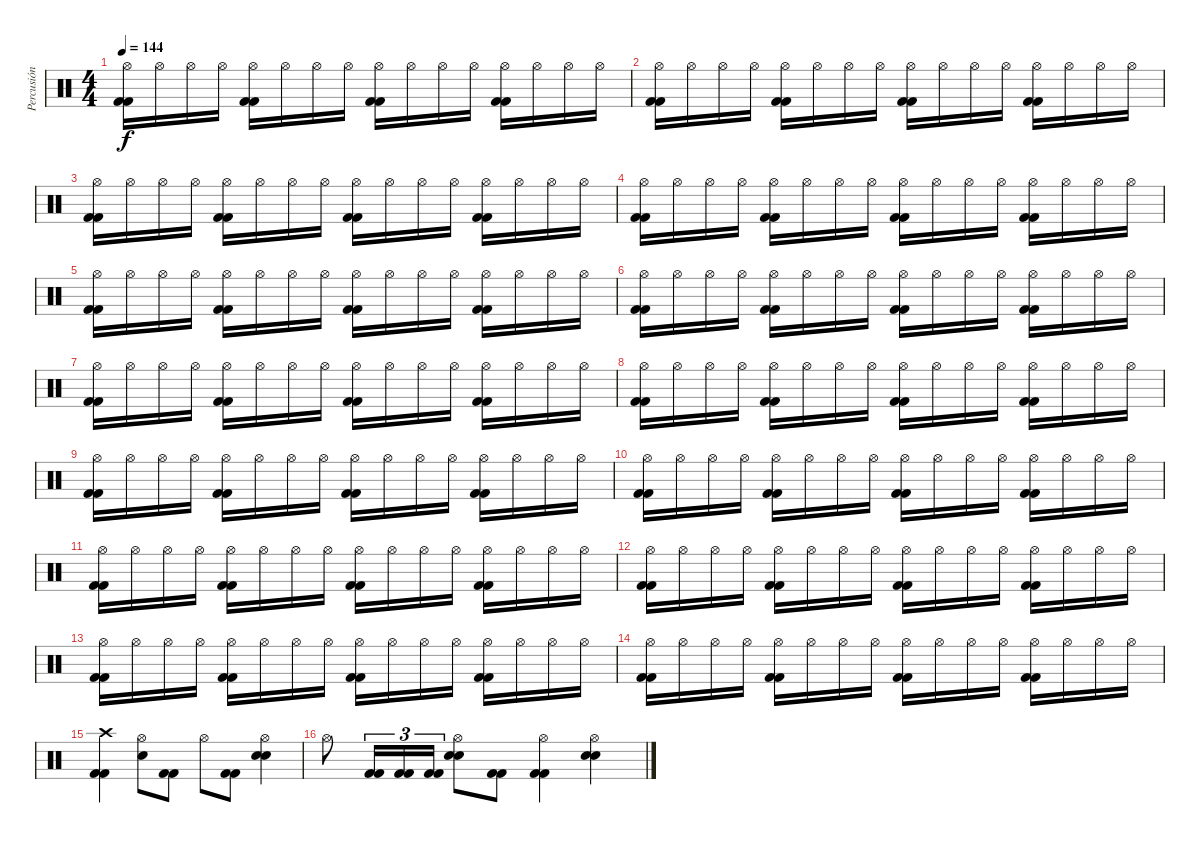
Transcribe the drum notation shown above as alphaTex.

\track ("Percusión" "Percusión") {instrument percussion}
\staff {score}
\articulation defaults
\ts (4 4)
\tempo 144
\clef neutral
\ks c
("Hi-Hat (open)" "Kick (hit) 2" "Kick (hit) 2").16{dy f} "Hi-Hat (open)".16 "Hi-Hat (open)".16 "Hi-Hat (open)".16 ("Hi-Hat (open)" "Kick (hit) 2" "Kick (hit) 2").16 "Hi-Hat (open)".16 "Hi-Hat (open)".16 "Hi-Hat (open)".16 ("Hi-Hat (open)" "Kick (hit) 2" "Kick (hit) 2").16 "Hi-Hat (open)".16 "Hi-Hat (open)".16 "Hi-Hat (open)".16 ("Hi-Hat (open)" "Kick (hit) 2" "Kick (hit) 2").16 "Hi-Hat (open)".16 "Hi-Hat (open)".16 "Hi-Hat (open)".16 |
("Hi-Hat (open)" "Kick (hit) 2" "Kick (hit) 2").16 "Hi-Hat (open)".16 "Hi-Hat (open)".16 "Hi-Hat (open)".16 ("Hi-Hat (open)" "Kick (hit) 2" "Kick (hit) 2").16 "Hi-Hat (open)".16 "Hi-Hat (open)".16 "Hi-Hat (open)".16 ("Hi-Hat (open)" "Kick (hit) 2" "Kick (hit) 2").16 "Hi-Hat (open)".16 "Hi-Hat (open)".16 "Hi-Hat (open)".16 ("Hi-Hat (open)" "Kick (hit) 2" "Kick (hit) 2").16 "Hi-Hat (open)".16 "Hi-Hat (open)".16 "Hi-Hat (open)".16 |
("Hi-Hat (open)" "Kick (hit) 2" "Kick (hit) 2").16 "Hi-Hat (open)".16 "Hi-Hat (open)".16 "Hi-Hat (open)".16 ("Hi-Hat (open)" "Kick (hit) 2" "Kick (hit) 2").16 "Hi-Hat (open)".16 "Hi-Hat (open)".16 "Hi-Hat (open)".16 ("Hi-Hat (open)" "Kick (hit) 2" "Kick (hit) 2").16 "Hi-Hat (open)".16 "Hi-Hat (open)".16 "Hi-Hat (open)".16 ("Hi-Hat (open)" "Kick (hit) 2" "Kick (hit) 2").16 "Hi-Hat (open)".16 "Hi-Hat (open)".16 "Hi-Hat (open)".16 |
("Hi-Hat (open)" "Kick (hit) 2" "Kick (hit) 2").16 "Hi-Hat (open)".16 "Hi-Hat (open)".16 "Hi-Hat (open)".16 ("Hi-Hat (open)" "Kick (hit) 2" "Kick (hit) 2").16 "Hi-Hat (open)".16 "Hi-Hat (open)".16 "Hi-Hat (open)".16 ("Hi-Hat (open)" "Kick (hit) 2" "Kick (hit) 2").16 "Hi-Hat (open)".16 "Hi-Hat (open)".16 "Hi-Hat (open)".16 ("Hi-Hat (open)" "Kick (hit) 2" "Kick (hit) 2").16 "Hi-Hat (open)".16 "Hi-Hat (open)".16 "Hi-Hat (open)".16 |
("Hi-Hat (open)" "Kick (hit) 2" "Kick (hit) 2").16 "Hi-Hat (open)".16 "Hi-Hat (open)".16 "Hi-Hat (open)".16 ("Hi-Hat (open)" "Kick (hit) 2" "Kick (hit) 2").16 "Hi-Hat (open)".16 "Hi-Hat (open)".16 "Hi-Hat (open)".16 ("Hi-Hat (open)" "Kick (hit) 2" "Kick (hit) 2").16 "Hi-Hat (open)".16 "Hi-Hat (open)".16 "Hi-Hat (open)".16 ("Hi-Hat (open)" "Kick (hit) 2" "Kick (hit) 2").16 "Hi-Hat (open)".16 "Hi-Hat (open)".16 "Hi-Hat (open)".16 |
("Hi-Hat (open)" "Kick (hit) 2" "Kick (hit) 2").16 "Hi-Hat (open)".16 "Hi-Hat (open)".16 "Hi-Hat (open)".16 ("Hi-Hat (open)" "Kick (hit) 2" "Kick (hit) 2").16 "Hi-Hat (open)".16 "Hi-Hat (open)".16 "Hi-Hat (open)".16 ("Hi-Hat (open)" "Kick (hit) 2" "Kick (hit) 2").16 "Hi-Hat (open)".16 "Hi-Hat (open)".16 "Hi-Hat (open)".16 ("Hi-Hat (open)" "Kick (hit) 2" "Kick (hit) 2").16 "Hi-Hat (open)".16 "Hi-Hat (open)".16 "Hi-Hat (open)".16 |
("Hi-Hat (open)" "Kick (hit) 2" "Kick (hit) 2").16 "Hi-Hat (open)".16 "Hi-Hat (open)".16 "Hi-Hat (open)".16 ("Hi-Hat (open)" "Kick (hit) 2" "Kick (hit) 2").16 "Hi-Hat (open)".16 "Hi-Hat (open)".16 "Hi-Hat (open)".16 ("Hi-Hat (open)" "Kick (hit) 2" "Kick (hit) 2").16 "Hi-Hat (open)".16 "Hi-Hat (open)".16 "Hi-Hat (open)".16 ("Hi-Hat (open)" "Kick (hit) 2" "Kick (hit) 2").16 "Hi-Hat (open)".16 "Hi-Hat (open)".16 "Hi-Hat (open)".16 |
("Hi-Hat (open)" "Kick (hit) 2" "Kick (hit) 2").16 "Hi-Hat (open)".16 "Hi-Hat (open)".16 "Hi-Hat (open)".16 ("Hi-Hat (open)" "Kick (hit) 2" "Kick (hit) 2").16 "Hi-Hat (open)".16 "Hi-Hat (open)".16 "Hi-Hat (open)".16 ("Hi-Hat (open)" "Kick (hit) 2" "Kick (hit) 2").16 "Hi-Hat (open)".16 "Hi-Hat (open)".16 "Hi-Hat (open)".16 ("Hi-Hat (open)" "Kick (hit) 2" "Kick (hit) 2").16 "Hi-Hat (open)".16 "Hi-Hat (open)".16 "Hi-Hat (open)".16 |
("Hi-Hat (open)" "Kick (hit) 2" "Kick (hit) 2").16 "Hi-Hat (open)".16 "Hi-Hat (open)".16 "Hi-Hat (open)".16 ("Hi-Hat (open)" "Kick (hit) 2" "Kick (hit) 2").16 "Hi-Hat (open)".16 "Hi-Hat (open)".16 "Hi-Hat (open)".16 ("Hi-Hat (open)" "Kick (hit) 2" "Kick (hit) 2").16 "Hi-Hat (open)".16 "Hi-Hat (open)".16 "Hi-Hat (open)".16 ("Hi-Hat (open)" "Kick (hit) 2" "Kick (hit) 2").16 "Hi-Hat (open)".16 "Hi-Hat (open)".16 "Hi-Hat (open)".16 |
("Hi-Hat (open)" "Kick (hit) 2" "Kick (hit) 2").16 "Hi-Hat (open)".16 "Hi-Hat (open)".16 "Hi-Hat (open)".16 ("Hi-Hat (open)" "Kick (hit) 2" "Kick (hit) 2").16 "Hi-Hat (open)".16 "Hi-Hat (open)".16 "Hi-Hat (open)".16 ("Hi-Hat (open)" "Kick (hit) 2" "Kick (hit) 2").16 "Hi-Hat (open)".16 "Hi-Hat (open)".16 "Hi-Hat (open)".16 ("Hi-Hat (open)" "Kick (hit) 2" "Kick (hit) 2").16 "Hi-Hat (open)".16 "Hi-Hat (open)".16 "Hi-Hat (open)".16 |
("Hi-Hat (open)" "Kick (hit) 2" "Kick (hit) 2").16 "Hi-Hat (open)".16 "Hi-Hat (open)".16 "Hi-Hat (open)".16 ("Hi-Hat (open)" "Kick (hit) 2" "Kick (hit) 2").16 "Hi-Hat (open)".16 "Hi-Hat (open)".16 "Hi-Hat (open)".16 ("Hi-Hat (open)" "Kick (hit) 2" "Kick (hit) 2").16 "Hi-Hat (open)".16 "Hi-Hat (open)".16 "Hi-Hat (open)".16 ("Hi-Hat (open)" "Kick (hit) 2" "Kick (hit) 2").16 "Hi-Hat (open)".16 "Hi-Hat (open)".16 "Hi-Hat (open)".16 |
("Hi-Hat (open)" "Kick (hit) 2" "Kick (hit) 2").16 "Hi-Hat (open)".16 "Hi-Hat (open)".16 "Hi-Hat (open)".16 ("Hi-Hat (open)" "Kick (hit) 2" "Kick (hit) 2").16 "Hi-Hat (open)".16 "Hi-Hat (open)".16 "Hi-Hat (open)".16 ("Hi-Hat (open)" "Kick (hit) 2" "Kick (hit) 2").16 "Hi-Hat (open)".16 "Hi-Hat (open)".16 "Hi-Hat (open)".16 ("Hi-Hat (open)" "Kick (hit) 2" "Kick (hit) 2").16 "Hi-Hat (open)".16 "Hi-Hat (open)".16 "Hi-Hat (open)".16 |
("Hi-Hat (open)" "Kick (hit) 2" "Kick (hit) 2").16 "Hi-Hat (open)".16 "Hi-Hat (open)".16 "Hi-Hat (open)".16 ("Hi-Hat (open)" "Kick (hit) 2" "Kick (hit) 2").16 "Hi-Hat (open)".16 "Hi-Hat (open)".16 "Hi-Hat (open)".16 ("Hi-Hat (open)" "Kick (hit) 2" "Kick (hit) 2").16 "Hi-Hat (open)".16 "Hi-Hat (open)".16 "Hi-Hat (open)".16 ("Hi-Hat (open)" "Kick (hit) 2" "Kick (hit) 2").16 "Hi-Hat (open)".16 "Hi-Hat (open)".16 "Hi-Hat (open)".16 |
("Hi-Hat (open)" "Kick (hit) 2" "Kick (hit) 2").16 "Hi-Hat (open)".16 "Hi-Hat (open)".16 "Hi-Hat (open)".16 ("Hi-Hat (open)" "Kick (hit) 2" "Kick (hit) 2").16 "Hi-Hat (open)".16 "Hi-Hat (open)".16 "Hi-Hat (open)".16 ("Hi-Hat (open)" "Kick (hit) 2" "Kick (hit) 2").16 "Hi-Hat (open)".16 "Hi-Hat (open)".16 "Hi-Hat (open)".16 ("Hi-Hat (open)" "Kick (hit) 2" "Kick (hit) 2").16 "Hi-Hat (open)".16 "Hi-Hat (open)".16 "Hi-Hat (open)".16 |
("Crash high (hit)" "Kick (hit) 2" "Kick (hit) 2").4 ("Hi-Hat (open)" "Snare (hit) 2").8 ("Kick (hit) 2" "Kick (hit) 2").8 "Hi-Hat (open)".8 ("Kick (hit) 2" "Kick (hit) 2").8 ("Hi-Hat (open)" "Snare (hit) 2" "Snare (hit) 2").4 |
"Hi-Hat (open)".8 ("Kick (hit) 2" "Kick (hit) 2").16{tu (3 2)} ("Kick (hit) 2" "Kick (hit) 2").16{tu (3 2)} ("Kick (hit) 2" "Kick (hit) 2").16{tu (3 2)} ("Hi-Hat (open)" "Snare (hit) 2" "Snare (hit) 2").8 ("Kick (hit) 2" "Kick (hit) 2").8 ("Hi-Hat (open)" "Kick (hit) 2" "Kick (hit) 2").4 ("Hi-Hat (open)" "Snare (hit) 2" "Snare (hit) 2").4
